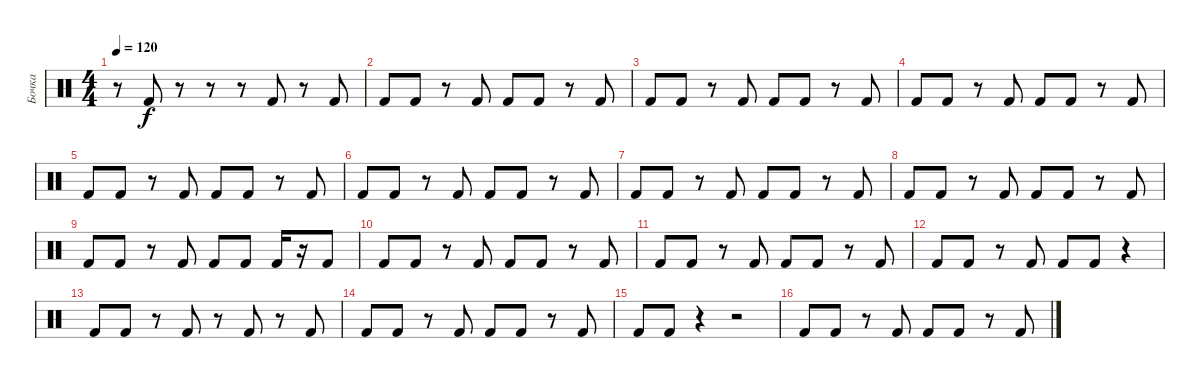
\track ("Бочка" "Бочка") {instrument percussion}
\staff {score}
\articulation defaults
\ts (4 4)
\tempo 120
\clef neutral
\ks c
r.8{dy f} "Kick (hit) 2".8 r.8 r.8 r.8 "Kick (hit) 2".8 r.8 "Kick (hit) 2".8 |
"Kick (hit) 2".8 "Kick (hit) 2".8 r.8 "Kick (hit) 2".8 "Kick (hit) 2".8 "Kick (hit) 2".8 r.8 "Kick (hit) 2".8 |
"Kick (hit) 2".8 "Kick (hit) 2".8 r.8 "Kick (hit) 2".8 "Kick (hit) 2".8 "Kick (hit) 2".8 r.8 "Kick (hit) 2".8 |
"Kick (hit) 2".8 "Kick (hit) 2".8 r.8 "Kick (hit) 2".8 "Kick (hit) 2".8 "Kick (hit) 2".8 r.8 "Kick (hit) 2".8 |
"Kick (hit) 2".8 "Kick (hit) 2".8 r.8 "Kick (hit) 2".8 "Kick (hit) 2".8 "Kick (hit) 2".8 r.8 "Kick (hit) 2".8 |
"Kick (hit) 2".8 "Kick (hit) 2".8 r.8 "Kick (hit) 2".8 "Kick (hit) 2".8 "Kick (hit) 2".8 r.8 "Kick (hit) 2".8 |
"Kick (hit) 2".8 "Kick (hit) 2".8 r.8 "Kick (hit) 2".8 "Kick (hit) 2".8 "Kick (hit) 2".8 r.8 "Kick (hit) 2".8 |
"Kick (hit) 2".8 "Kick (hit) 2".8 r.8 "Kick (hit) 2".8 "Kick (hit) 2".8 "Kick (hit) 2".8 r.8 "Kick (hit) 2".8 |
"Kick (hit) 2".8 "Kick (hit) 2".8 r.8 "Kick (hit) 2".8 "Kick (hit) 2".8 "Kick (hit) 2".8 "Kick (hit) 2".16 r.16 "Kick (hit) 2".8 |
"Kick (hit) 2".8 "Kick (hit) 2".8 r.8 "Kick (hit) 2".8 "Kick (hit) 2".8 "Kick (hit) 2".8 r.8 "Kick (hit) 2".8 |
"Kick (hit) 2".8 "Kick (hit) 2".8 r.8 "Kick (hit) 2".8 "Kick (hit) 2".8 "Kick (hit) 2".8 r.8 "Kick (hit) 2".8 |
"Kick (hit) 2".8 "Kick (hit) 2".8 r.8 "Kick (hit) 2".8 "Kick (hit) 2".8 "Kick (hit) 2".8 r.4 |
"Kick (hit) 2".8 "Kick (hit) 2".8 r.8 "Kick (hit) 2".8 r.8 "Kick (hit) 2".8 r.8 "Kick (hit) 2".8 |
"Kick (hit) 2".8 "Kick (hit) 2".8 r.8 "Kick (hit) 2".8 "Kick (hit) 2".8 "Kick (hit) 2".8 r.8 "Kick (hit) 2".8 |
"Kick (hit) 2".8 "Kick (hit) 2".8 r.4 r.2 |
"Kick (hit) 2".8 "Kick (hit) 2".8 r.8 "Kick (hit) 2".8 "Kick (hit) 2".8 "Kick (hit) 2".8 r.8 "Kick (hit) 2".8
